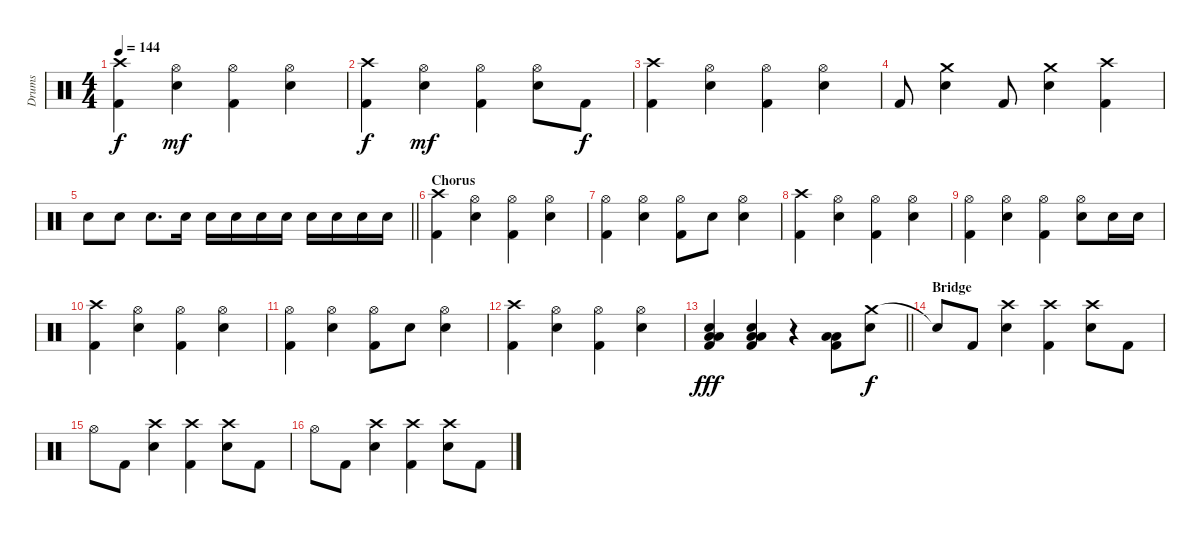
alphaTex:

\track ("Drums" "Drums") {instrument percussion}
\staff {score}
\articulation defaults
\ts (4 4)
\tempo 144
\clef neutral
\ks c
("Kick (hit) 2" "Crash high (hit)").4{dy f} ("Hi-Hat (open)" "Snare (hit) 2").4{dy mf} ("Kick (hit) 2" "Hi-Hat (open)").4 ("Hi-Hat (open)" "Snare (hit) 2").4 |
("Kick (hit) 2" "Crash high (hit)").4{dy f} ("Hi-Hat (open)" "Snare (hit) 2").4{dy mf} ("Kick (hit) 2" "Hi-Hat (open)").4 ("Hi-Hat (open)" "Snare (hit) 2").8 "Kick (hit) 2".8{dy f} |
("Kick (hit) 2" "Crash high (hit)").4 ("Hi-Hat (open)" "Snare (hit) 2").4 ("Kick (hit) 2" "Hi-Hat (open)").4 ("Hi-Hat (open)" "Snare (hit) 2").4 |
"Kick (hit) 2".8 ("Crash medium (hit)" "Snare (hit) 2").4 "Kick (hit) 2".8 ("Crash medium (hit)" "Snare (hit) 2").4 ("Kick (hit) 2" "Crash high (hit)").4 |
\barLineRight lightlight "Snare (hit) 2".8 "Snare (hit) 2".8 "Snare (hit) 2".8{d} "Snare (hit) 2".16 "Snare (hit) 2".16 "Snare (hit) 2".16 "Snare (hit) 2".16 "Snare (hit) 2".16 "Snare (hit) 2".16 "Snare (hit) 2".16 "Snare (hit) 2".16 "Snare (hit) 2".16
|
\section ("" "Chorus")
("Kick (hit) 2" "Crash high (hit)").4 ("Hi-Hat (open)" "Snare (hit) 2").4 ("Kick (hit) 2" "Hi-Hat (open)").4 ("Hi-Hat (open)" "Snare (hit) 2").4 |
("Kick (hit) 2" "Hi-Hat (open)").4 ("Hi-Hat (open)" "Snare (hit) 2").4 ("Kick (hit) 2" "Hi-Hat (open)").8 "Snare (hit) 2".8 ("Hi-Hat (open)" "Snare (hit) 2").4 |
("Kick (hit) 2" "Crash high (hit)").4 ("Hi-Hat (open)" "Snare (hit) 2").4 ("Kick (hit) 2" "Hi-Hat (open)").4 ("Hi-Hat (open)" "Snare (hit) 2").4 |
("Kick (hit) 2" "Hi-Hat (open)").4 ("Hi-Hat (open)" "Snare (hit) 2").4 ("Kick (hit) 2" "Hi-Hat (open)").4 ("Hi-Hat (open)" "Snare (hit) 2").8 "Snare (hit) 2".16 "Snare (hit) 2".16 |
("Kick (hit) 2" "Crash high (hit)").4 ("Hi-Hat (open)" "Snare (hit) 2").4 ("Kick (hit) 2" "Hi-Hat (open)").4 ("Hi-Hat (open)" "Snare (hit) 2").4 |
("Kick (hit) 2" "Hi-Hat (open)").4 ("Hi-Hat (open)" "Snare (hit) 2").4 ("Kick (hit) 2" "Hi-Hat (open)").8 "Snare (hit) 2".8 ("Hi-Hat (open)" "Snare (hit) 2").4 |
("Kick (hit) 2" "Crash high (hit)").4 ("Hi-Hat (open)" "Snare (hit) 2").4 ("Kick (hit) 2" "Hi-Hat (open)").4 ("Hi-Hat (open)" "Snare (hit) 2").4 |
\barLineRight lightlight
("Kick (hit) 2" "Low Floor Tom (hit)" "Low Floor Tom (hit)" "Snare (hit) 2").4{dy fff} ("Kick (hit) 2" "Low Floor Tom (hit)" "Low Floor Tom (hit)" "Snare (hit) 2").4 r.4 ("Kick (hit) 2" "Low Floor Tom (hit)" "Low Floor Tom (hit)").8 ("Crash medium (hit)" "Snare (hit) 2").8{dy f} |
\section ("" "Bridge")
"Snare (hit)"{t}.8 "Kick (hit) 2".8 ("Crash high (hit)" "Snare (hit) 2").4 ("Kick (hit) 2" "Crash high (hit)").4 ("Crash high (hit)" "Snare (hit) 2").8 "Kick (hit) 2".8 |
"Hi-Hat (open)".8 "Kick (hit) 2".8 ("Crash high (hit)" "Snare (hit) 2").4 ("Kick (hit) 2" "Crash high (hit)").4 ("Crash high (hit)" "Snare (hit) 2").8 "Kick (hit) 2".8 |
"Hi-Hat (open)".8 "Kick (hit) 2".8 ("Crash high (hit)" "Snare (hit) 2").4 ("Kick (hit) 2" "Crash high (hit)").4 ("Crash high (hit)" "Snare (hit) 2").8 "Kick (hit) 2".8
